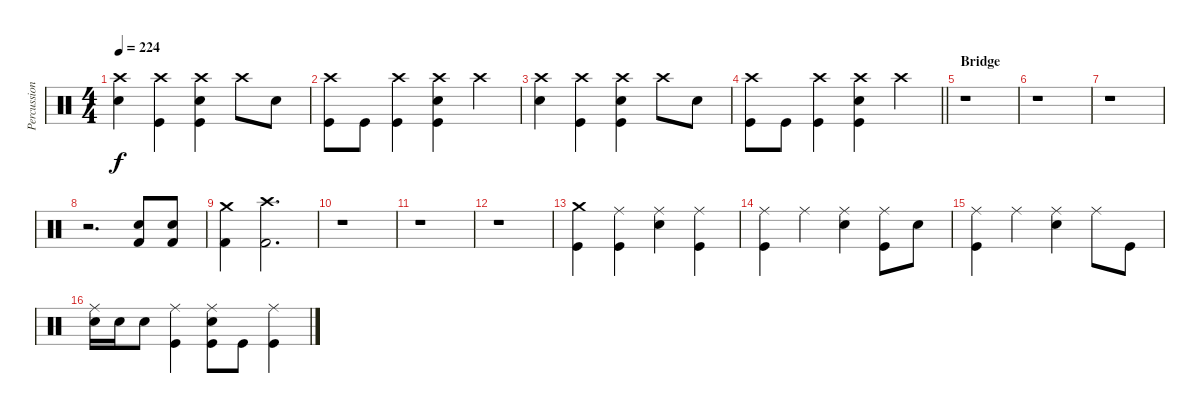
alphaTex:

\track ("Percussion" "Percussion") {instrument percussion}
\staff {score}
\articulation defaults
\ts (4 4)
\tempo 224
\clef neutral
\ks c
("Crash high (hit)" "Electric Snare (hit)").4{dy f} ("Crash high (hit)" "Kick (hit)").4 ("Crash high (hit)" "Electric Snare (hit)" "Kick (hit)").4 "Crash high (hit)".8 "Electric Snare (hit)".8 |
("Crash high (hit)" "Kick (hit)").8 "Kick (hit)".8 ("Crash high (hit)" "Kick (hit)").4 ("Crash high (hit)" "Electric Snare (hit)" "Kick (hit)").4 "Crash high (hit)".4 |
("Crash high (hit)" "Electric Snare (hit)").4 ("Crash high (hit)" "Kick (hit)").4 ("Crash high (hit)" "Electric Snare (hit)" "Kick (hit)").4 "Crash high (hit)".8 "Electric Snare (hit)".8 |
\barLineRight lightlight
("Crash high (hit)" "Kick (hit)").8 "Kick (hit)".8 ("Crash high (hit)" "Kick (hit)").4 ("Crash high (hit)" "Electric Snare (hit)" "Kick (hit)").4 "Crash high (hit)".4 |
\section ("" "Bridge")
r.1 |
r.1 |
r.1 |
r.2{d} ("Electric Snare (hit)" "Kick (hit) 2").8 ("Electric Snare (hit)" "Kick (hit) 2").8 |
("Crash medium (hit)" "Kick (hit) 2").4 ("Crash high (hit)" "Kick (hit) 2").2{d} |
r.1 |
r.1 |
r.1 |
("Crash medium (hit)" "Kick (hit)").4 ("Ride (middle)" "Kick (hit)").4 ("Ride (middle)" "Electric Snare (hit)").4 ("Ride (middle)" "Kick (hit)").4 |
("Ride (middle)" "Kick (hit)").4 "Ride (middle)".4 ("Ride (middle)" "Electric Snare (hit)").4 ("Ride (middle)" "Kick (hit)").8 "Electric Snare (hit)".8 |
("Ride (middle)" "Kick (hit)").4 "Ride (middle)".4 ("Ride (middle)" "Electric Snare (hit)").4 "Ride (middle)".8 "Kick (hit)".8 |
("Ride (middle)" "Electric Snare (hit)").16 "Electric Snare (hit)".16 "Electric Snare (hit)".8 ("Ride (middle)" "Kick (hit)").4 ("Ride (middle)" "Electric Snare (hit)" "Kick (hit)").8 "Kick (hit)".8 ("Ride (middle)" "Kick (hit)").4
